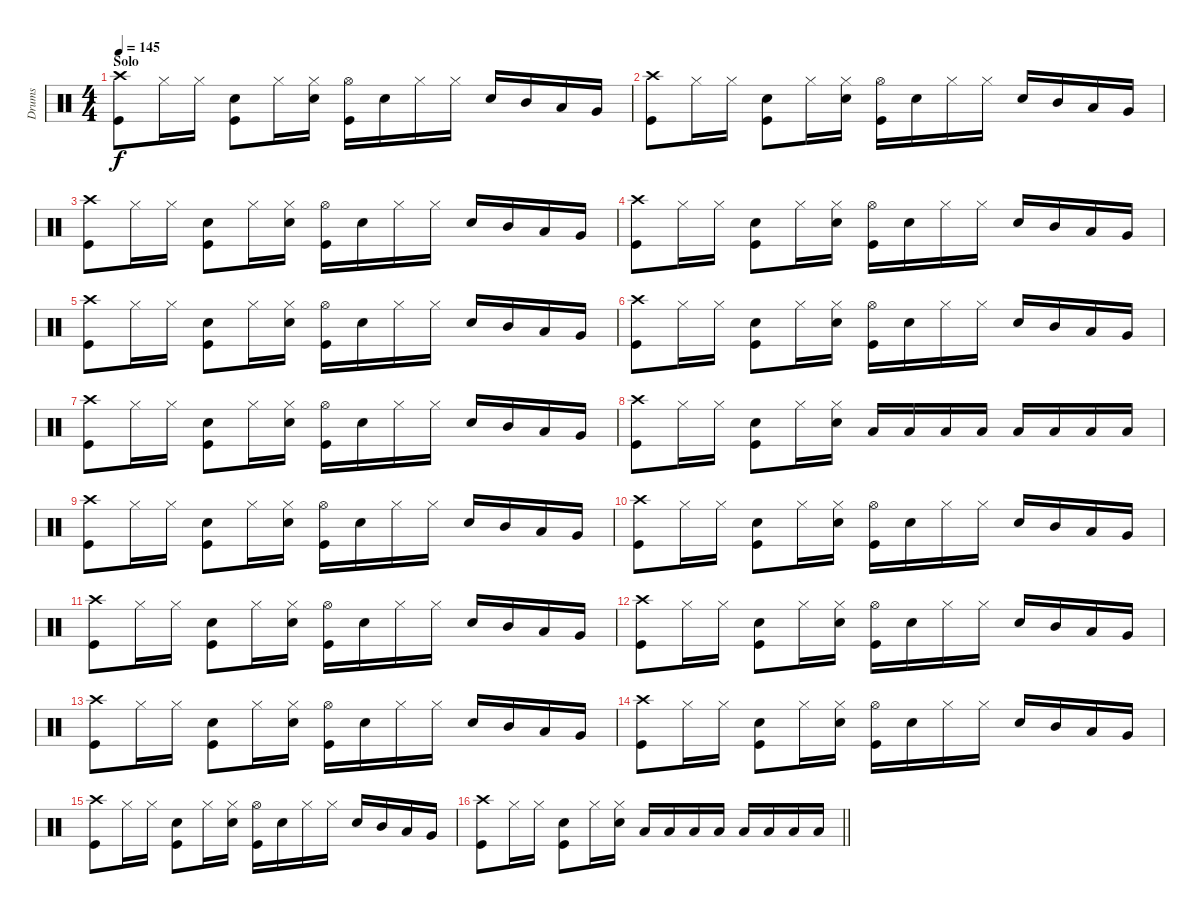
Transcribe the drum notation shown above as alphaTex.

\track ("Drums" "Drums") {instrument percussion}
\staff {score}
\articulation defaults
\ts (4 4)
\section ("" "Solo")
\tempo 145
\clef neutral
\ks c
("Crash high (hit)" "Kick (hit)").8{dy f} "Hi-Hat (closed)".16 "Hi-Hat (closed)".16 ("Electric Snare (hit)" "Kick (hit)").8 "Hi-Hat (closed)".16 ("Hi-Hat (closed)" "Electric Snare (hit)").16 ("Hi-Hat (open)" "Kick (hit)").16 "Electric Snare (hit)".16 "Hi-Hat (closed)".16 "Hi-Hat (closed)".16 "Electric Snare (hit)".16 "Mid Tom (hit)".16 "Low Tom (hit)".16 "Very Low Tom (hit)".16 |
("Crash high (hit)" "Kick (hit)").8 "Hi-Hat (closed)".16 "Hi-Hat (closed)".16 ("Electric Snare (hit)" "Kick (hit)").8 "Hi-Hat (closed)".16 ("Hi-Hat (closed)" "Electric Snare (hit)").16 ("Hi-Hat (open)" "Kick (hit)").16 "Electric Snare (hit)".16 "Hi-Hat (closed)".16 "Hi-Hat (closed)".16 "Electric Snare (hit)".16 "Mid Tom (hit)".16 "Low Tom (hit)".16 "Very Low Tom (hit)".16 |
("Crash high (hit)" "Kick (hit)").8 "Hi-Hat (closed)".16 "Hi-Hat (closed)".16 ("Electric Snare (hit)" "Kick (hit)").8 "Hi-Hat (closed)".16 ("Hi-Hat (closed)" "Electric Snare (hit)").16 ("Hi-Hat (open)" "Kick (hit)").16 "Electric Snare (hit)".16 "Hi-Hat (closed)".16 "Hi-Hat (closed)".16 "Electric Snare (hit)".16 "Mid Tom (hit)".16 "Low Tom (hit)".16 "Very Low Tom (hit)".16 |
("Crash high (hit)" "Kick (hit)").8 "Hi-Hat (closed)".16 "Hi-Hat (closed)".16 ("Electric Snare (hit)" "Kick (hit)").8 "Hi-Hat (closed)".16 ("Hi-Hat (closed)" "Electric Snare (hit)").16 ("Hi-Hat (open)" "Kick (hit)").16 "Electric Snare (hit)".16 "Hi-Hat (closed)".16 "Hi-Hat (closed)".16 "Electric Snare (hit)".16 "Mid Tom (hit)".16 "Low Tom (hit)".16 "Very Low Tom (hit)".16 |
("Crash high (hit)" "Kick (hit)").8 "Hi-Hat (closed)".16 "Hi-Hat (closed)".16 ("Electric Snare (hit)" "Kick (hit)").8 "Hi-Hat (closed)".16 ("Hi-Hat (closed)" "Electric Snare (hit)").16 ("Hi-Hat (open)" "Kick (hit)").16 "Electric Snare (hit)".16 "Hi-Hat (closed)".16 "Hi-Hat (closed)".16 "Electric Snare (hit)".16 "Mid Tom (hit)".16 "Low Tom (hit)".16 "Very Low Tom (hit)".16 |
("Crash high (hit)" "Kick (hit)").8 "Hi-Hat (closed)".16 "Hi-Hat (closed)".16 ("Electric Snare (hit)" "Kick (hit)").8 "Hi-Hat (closed)".16 ("Hi-Hat (closed)" "Electric Snare (hit)").16 ("Hi-Hat (open)" "Kick (hit)").16 "Electric Snare (hit)".16 "Hi-Hat (closed)".16 "Hi-Hat (closed)".16 "Electric Snare (hit)".16 "Mid Tom (hit)".16 "Low Tom (hit)".16 "Very Low Tom (hit)".16 |
("Crash high (hit)" "Kick (hit)").8 "Hi-Hat (closed)".16 "Hi-Hat (closed)".16 ("Electric Snare (hit)" "Kick (hit)").8 "Hi-Hat (closed)".16 ("Hi-Hat (closed)" "Electric Snare (hit)").16 ("Hi-Hat (open)" "Kick (hit)").16 "Electric Snare (hit)".16 "Hi-Hat (closed)".16 "Hi-Hat (closed)".16 "Electric Snare (hit)".16 "Mid Tom (hit)".16 "Low Tom (hit)".16 "Very Low Tom (hit)".16 |
("Crash high (hit)" "Kick (hit)").8 "Hi-Hat (closed)".16 "Hi-Hat (closed)".16 ("Electric Snare (hit)" "Kick (hit)").8 "Hi-Hat (closed)".16 ("Hi-Hat (closed)" "Electric Snare (hit)").16 "Low Tom (hit)".16 "Low Tom (hit)".16 "Low Tom (hit)".16 "Low Tom (hit)".16 "Low Tom (hit)".16 "Low Tom (hit)".16 "Low Tom (hit)".16 "Low Tom (hit)".16 |
("Crash high (hit)" "Kick (hit)").8 "Hi-Hat (closed)".16 "Hi-Hat (closed)".16 ("Electric Snare (hit)" "Kick (hit)").8 "Hi-Hat (closed)".16 ("Hi-Hat (closed)" "Electric Snare (hit)").16 ("Hi-Hat (open)" "Kick (hit)").16 "Electric Snare (hit)".16 "Hi-Hat (closed)".16 "Hi-Hat (closed)".16 "Electric Snare (hit)".16 "Mid Tom (hit)".16 "Low Tom (hit)".16 "Very Low Tom (hit)".16 |
("Crash high (hit)" "Kick (hit)").8 "Hi-Hat (closed)".16 "Hi-Hat (closed)".16 ("Electric Snare (hit)" "Kick (hit)").8 "Hi-Hat (closed)".16 ("Hi-Hat (closed)" "Electric Snare (hit)").16 ("Hi-Hat (open)" "Kick (hit)").16 "Electric Snare (hit)".16 "Hi-Hat (closed)".16 "Hi-Hat (closed)".16 "Electric Snare (hit)".16 "Mid Tom (hit)".16 "Low Tom (hit)".16 "Very Low Tom (hit)".16 |
("Crash high (hit)" "Kick (hit)").8 "Hi-Hat (closed)".16 "Hi-Hat (closed)".16 ("Electric Snare (hit)" "Kick (hit)").8 "Hi-Hat (closed)".16 ("Hi-Hat (closed)" "Electric Snare (hit)").16 ("Hi-Hat (open)" "Kick (hit)").16 "Electric Snare (hit)".16 "Hi-Hat (closed)".16 "Hi-Hat (closed)".16 "Electric Snare (hit)".16 "Mid Tom (hit)".16 "Low Tom (hit)".16 "Very Low Tom (hit)".16 |
("Crash high (hit)" "Kick (hit)").8 "Hi-Hat (closed)".16 "Hi-Hat (closed)".16 ("Electric Snare (hit)" "Kick (hit)").8 "Hi-Hat (closed)".16 ("Hi-Hat (closed)" "Electric Snare (hit)").16 ("Hi-Hat (open)" "Kick (hit)").16 "Electric Snare (hit)".16 "Hi-Hat (closed)".16 "Hi-Hat (closed)".16 "Electric Snare (hit)".16 "Mid Tom (hit)".16 "Low Tom (hit)".16 "Very Low Tom (hit)".16 |
("Crash high (hit)" "Kick (hit)").8 "Hi-Hat (closed)".16 "Hi-Hat (closed)".16 ("Electric Snare (hit)" "Kick (hit)").8 "Hi-Hat (closed)".16 ("Hi-Hat (closed)" "Electric Snare (hit)").16 ("Hi-Hat (open)" "Kick (hit)").16 "Electric Snare (hit)".16 "Hi-Hat (closed)".16 "Hi-Hat (closed)".16 "Electric Snare (hit)".16 "Mid Tom (hit)".16 "Low Tom (hit)".16 "Very Low Tom (hit)".16 |
("Crash high (hit)" "Kick (hit)").8 "Hi-Hat (closed)".16 "Hi-Hat (closed)".16 ("Electric Snare (hit)" "Kick (hit)").8 "Hi-Hat (closed)".16 ("Hi-Hat (closed)" "Electric Snare (hit)").16 ("Hi-Hat (open)" "Kick (hit)").16 "Electric Snare (hit)".16 "Hi-Hat (closed)".16 "Hi-Hat (closed)".16 "Electric Snare (hit)".16 "Mid Tom (hit)".16 "Low Tom (hit)".16 "Very Low Tom (hit)".16 |
("Crash high (hit)" "Kick (hit)").8 "Hi-Hat (closed)".16 "Hi-Hat (closed)".16 ("Electric Snare (hit)" "Kick (hit)").8 "Hi-Hat (closed)".16 ("Hi-Hat (closed)" "Electric Snare (hit)").16 ("Hi-Hat (open)" "Kick (hit)").16 "Electric Snare (hit)".16 "Hi-Hat (closed)".16 "Hi-Hat (closed)".16 "Electric Snare (hit)".16 "Mid Tom (hit)".16 "Low Tom (hit)".16 "Very Low Tom (hit)".16 |
\barLineRight lightlight
("Crash high (hit)" "Kick (hit)").8 "Hi-Hat (closed)".16 "Hi-Hat (closed)".16 ("Electric Snare (hit)" "Kick (hit)").8 "Hi-Hat (closed)".16 ("Hi-Hat (closed)" "Electric Snare (hit)").16 "Low Tom (hit)".16 "Low Tom (hit)".16 "Low Tom (hit)".16 "Low Tom (hit)".16 "Low Tom (hit)".16 "Low Tom (hit)".16 "Low Tom (hit)".16 "Low Tom (hit)".16
